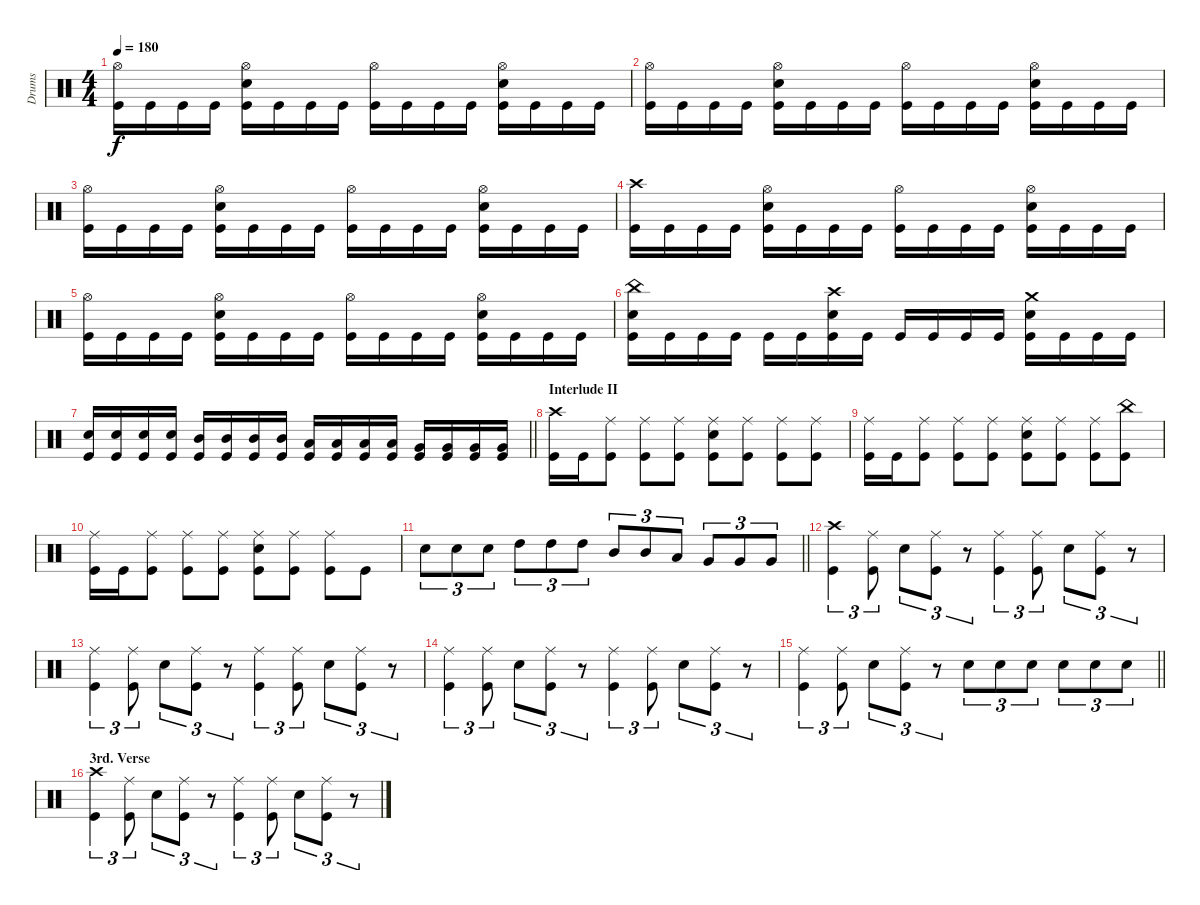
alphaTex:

\track ("Drums" "Drums") {instrument percussion}
\staff {score}
\articulation defaults
\ts (4 4)
\tempo 180
\clef neutral
\ks c
("Hi-Hat (open)" "Kick (hit)").16{dy f} "Kick (hit)".16 "Kick (hit)".16 "Kick (hit)".16 ("Hi-Hat (open)" "Electric Snare (hit)" "Kick (hit)").16 "Kick (hit)".16 "Kick (hit)".16 "Kick (hit)".16 ("Hi-Hat (open)" "Kick (hit)").16 "Kick (hit)".16 "Kick (hit)".16 "Kick (hit)".16 ("Hi-Hat (open)" "Electric Snare (hit)" "Kick (hit)").16 "Kick (hit)".16 "Kick (hit)".16 "Kick (hit)".16 |
("Hi-Hat (open)" "Kick (hit)").16 "Kick (hit)".16 "Kick (hit)".16 "Kick (hit)".16 ("Hi-Hat (open)" "Electric Snare (hit)" "Kick (hit)").16 "Kick (hit)".16 "Kick (hit)".16 "Kick (hit)".16 ("Hi-Hat (open)" "Kick (hit)").16 "Kick (hit)".16 "Kick (hit)".16 "Kick (hit)".16 ("Hi-Hat (open)" "Electric Snare (hit)" "Kick (hit)").16 "Kick (hit)".16 "Kick (hit)".16 "Kick (hit)".16 |
("Hi-Hat (open)" "Kick (hit)").16 "Kick (hit)".16 "Kick (hit)".16 "Kick (hit)".16 ("Hi-Hat (open)" "Electric Snare (hit)" "Kick (hit)").16 "Kick (hit)".16 "Kick (hit)".16 "Kick (hit)".16 ("Hi-Hat (open)" "Kick (hit)").16 "Kick (hit)".16 "Kick (hit)".16 "Kick (hit)".16 ("Hi-Hat (open)" "Electric Snare (hit)" "Kick (hit)").16 "Kick (hit)".16 "Kick (hit)".16 "Kick (hit)".16 |
("Crash high (hit)" "Kick (hit)").16 "Kick (hit)".16 "Kick (hit)".16 "Kick (hit)".16 ("Hi-Hat (open)" "Electric Snare (hit)" "Kick (hit)").16 "Kick (hit)".16 "Kick (hit)".16 "Kick (hit)".16 ("Hi-Hat (open)" "Kick (hit)").16 "Kick (hit)".16 "Kick (hit)".16 "Kick (hit)".16 ("Hi-Hat (open)" "Electric Snare (hit)" "Kick (hit)").16 "Kick (hit)".16 "Kick (hit)".16 "Kick (hit)".16 |
("Hi-Hat (open)" "Kick (hit)").16 "Kick (hit)".16 "Kick (hit)".16 "Kick (hit)".16 ("Hi-Hat (open)" "Electric Snare (hit)" "Kick (hit)").16 "Kick (hit)".16 "Kick (hit)".16 "Kick (hit)".16 ("Hi-Hat (open)" "Kick (hit)").16 "Kick (hit)".16 "Kick (hit)".16 "Kick (hit)".16 ("Hi-Hat (open)" "Electric Snare (hit)" "Kick (hit)").16 "Kick (hit)".16 "Kick (hit)".16 "Kick (hit)".16 |
("China (hit)" "Electric Snare (hit)" "Kick (hit)").16 "Kick (hit)".16 "Kick (hit)".16 "Kick (hit)".16 "Kick (hit)".16 "Kick (hit)".16 ("Crash high (hit)" "Electric Snare (hit)" "Kick (hit)").16 "Kick (hit)".16 "Kick (hit)".16 "Kick (hit)".16 "Kick (hit)".16 "Kick (hit)".16 ("Crash medium (hit)" "Electric Snare (hit)" "Kick (hit)").16 "Kick (hit)".16 "Kick (hit)".16 "Kick (hit)".16 |
\barLineRight lightlight
("Electric Snare (hit)" "Kick (hit)").16 ("Electric Snare (hit)" "Kick (hit)").16 ("Electric Snare (hit)" "Kick (hit)").16 ("Electric Snare (hit)" "Kick (hit)").16 ("Mid Tom (hit)" "Kick (hit)").16 ("Mid Tom (hit)" "Kick (hit)").16 ("Mid Tom (hit)" "Kick (hit)").16 ("Mid Tom (hit)" "Kick (hit)").16 ("Low Tom (hit)" "Kick (hit)").16 ("Low Tom (hit)" "Kick (hit)").16 ("Low Tom (hit)" "Kick (hit)").16 ("Low Tom (hit)" "Kick (hit)").16 ("Very Low Tom (hit)" "Kick (hit)").16 ("Very Low Tom (hit)" "Kick (hit)").16 ("Very Low Tom (hit)" "Kick (hit)").16 ("Very Low Tom (hit)" "Kick (hit)").16 |
\section ("" "Interlude II")
("Crash high (hit)" "Kick (hit)").16 "Kick (hit)".16 ("Ride (middle)" "Kick (hit)").8 ("Ride (middle)" "Kick (hit)").8 ("Ride (middle)" "Kick (hit)").8 ("Ride (middle)" "Electric Snare (hit)" "Kick (hit)").8 ("Ride (middle)" "Kick (hit)").8 ("Ride (middle)" "Kick (hit)").8 ("Ride (middle)" "Kick (hit)").8 |
("Ride (middle)" "Kick (hit)").16 "Kick (hit)".16 ("Ride (middle)" "Kick (hit)").8 ("Ride (middle)" "Kick (hit)").8 ("Ride (middle)" "Kick (hit)").8 ("Ride (middle)" "Electric Snare (hit)" "Kick (hit)").8 ("Ride (middle)" "Kick (hit)").8 ("Ride (middle)" "Kick (hit)").8 ("China (hit)" "Kick (hit)").8 |
("Ride (middle)" "Kick (hit)").16 "Kick (hit)".16 ("Ride (middle)" "Kick (hit)").8 ("Ride (middle)" "Kick (hit)").8 ("Ride (middle)" "Kick (hit)").8 ("Ride (middle)" "Electric Snare (hit)" "Kick (hit)").8 ("Ride (middle)" "Kick (hit)").8 ("Ride (middle)" "Kick (hit)").8 "Kick (hit)".8 |
\barLineRight lightlight "Electric Snare (hit)".8{tu (3 2)} "Electric Snare (hit)".8{tu (3 2)} "Electric Snare (hit)".8{tu (3 2)} "High Tom (hit)".8{tu (3 2)} "High Tom (hit)".8{tu (3 2)} "High Tom (hit)".8{tu (3 2)} "Mid Tom (hit)".8{tu (3 2)} "Mid Tom (hit)".8{tu (3 2)} "Low Tom (hit)".8{tu (3 2)} "Very Low Tom (hit)".8{tu (3 2)} "Very Low Tom (hit)".8{tu (3 2)} "Very Low Tom (hit)".8{tu (3 2)}
|
("Crash high (hit)" "Kick (hit)").4{tu (3 2)} ("Ride (middle)" "Kick (hit)").8{tu (3 2)} "Electric Snare (hit)".8{tu (3 2)} ("Ride (middle)" "Kick (hit)").8{tu (3 2)} r.8{tu (3 2)} ("Ride (middle)" "Kick (hit)").4{tu (3 2)} ("Ride (middle)" "Kick (hit)").8{tu (3 2)} "Electric Snare (hit)".8{tu (3 2)} ("Ride (middle)" "Kick (hit)").8{tu (3 2)} r.8{tu (3 2)} |
("Ride (middle)" "Kick (hit)").4{tu (3 2)} ("Ride (middle)" "Kick (hit)").8{tu (3 2)} "Electric Snare (hit)".8{tu (3 2)} ("Ride (middle)" "Kick (hit)").8{tu (3 2)} r.8{tu (3 2)} ("Ride (middle)" "Kick (hit)").4{tu (3 2)} ("Ride (middle)" "Kick (hit)").8{tu (3 2)} "Electric Snare (hit)".8{tu (3 2)} ("Ride (middle)" "Kick (hit)").8{tu (3 2)} r.8{tu (3 2)} |
("Ride (middle)" "Kick (hit)").4{tu (3 2)} ("Ride (middle)" "Kick (hit)").8{tu (3 2)} "Electric Snare (hit)".8{tu (3 2)} ("Ride (middle)" "Kick (hit)").8{tu (3 2)} r.8{tu (3 2)} ("Ride (middle)" "Kick (hit)").4{tu (3 2)} ("Ride (middle)" "Kick (hit)").8{tu (3 2)} "Electric Snare (hit)".8{tu (3 2)} ("Ride (middle)" "Kick (hit)").8{tu (3 2)} r.8{tu (3 2)} |
\barLineRight lightlight
("Ride (middle)" "Kick (hit)").4{tu (3 2)} ("Ride (middle)" "Kick (hit)").8{tu (3 2)} "Electric Snare (hit)".8{tu (3 2)} ("Ride (middle)" "Kick (hit)").8{tu (3 2)} r.8{tu (3 2)} "Electric Snare (hit)".8{tu (3 2)} "Electric Snare (hit)".8{tu (3 2)} "Electric Snare (hit)".8{tu (3 2)} "Electric Snare (hit)".8{tu (3 2)} "Electric Snare (hit)".8{tu (3 2)} "Electric Snare (hit)".8{tu (3 2)} |
\section ("" "3rd. Verse")
("Crash high (hit)" "Kick (hit)").4{tu (3 2)} ("Ride (middle)" "Kick (hit)").8{tu (3 2)} "Electric Snare (hit)".8{tu (3 2)} ("Ride (middle)" "Kick (hit)").8{tu (3 2)} r.8{tu (3 2)} ("Ride (middle)" "Kick (hit)").4{tu (3 2)} ("Ride (middle)" "Kick (hit)").8{tu (3 2)} "Electric Snare (hit)".8{tu (3 2)} ("Ride (middle)" "Kick (hit)").8{tu (3 2)} r.8{tu (3 2)}
